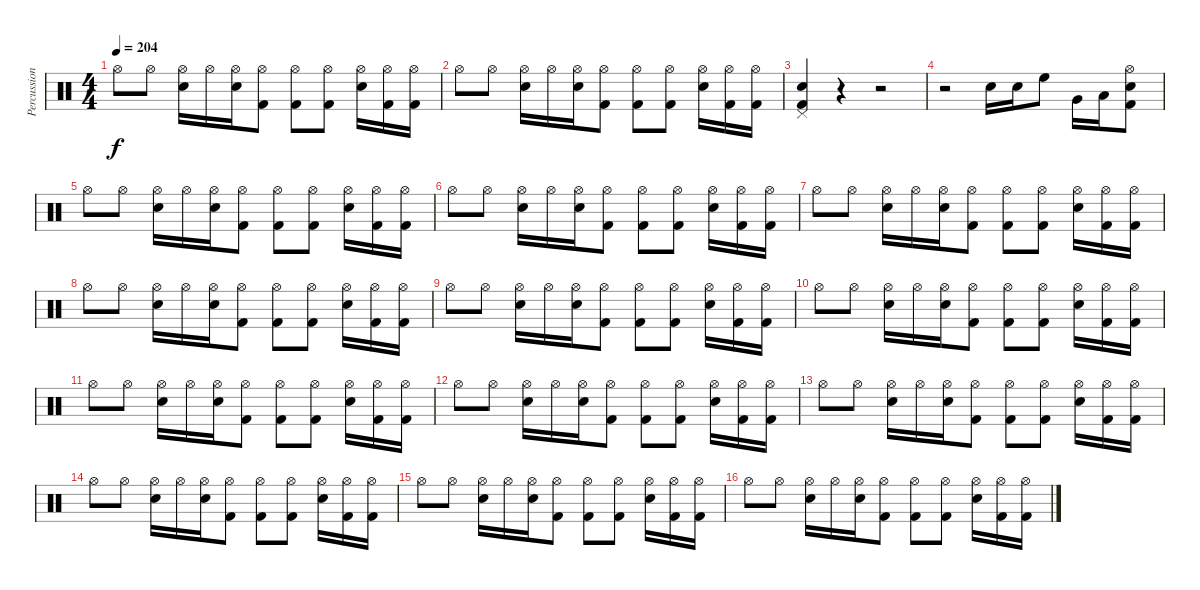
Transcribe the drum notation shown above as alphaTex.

\track ("Percussion" "Percussion") {instrument percussion}
\staff {score}
\articulation defaults
\ts (4 4)
\tempo 204
\clef neutral
\ks c "Hi-Hat (open)".8{dy f} "Hi-Hat (open)".8
("Hi-Hat (open)" "Snare (hit) 2").16 "Hi-Hat (open)".16 ("Hi-Hat (open)" "Snare (hit) 2").16 ("Hi-Hat (open)" "Kick (hit) 2").8 ("Hi-Hat (open)" "Kick (hit) 2").8 ("Hi-Hat (open)" "Kick (hit) 2").8 ("Hi-Hat (open)" "Snare (hit) 2").16 ("Hi-Hat (open)" "Kick (hit) 2").16 ("Hi-Hat (open)" "Kick (hit) 2").16 |
"Hi-Hat (open)".8 "Hi-Hat (open)".8 ("Hi-Hat (open)" "Snare (hit) 2").16 "Hi-Hat (open)".16 ("Hi-Hat (open)" "Snare (hit) 2").16 ("Hi-Hat (open)" "Kick (hit) 2").8 ("Hi-Hat (open)" "Kick (hit) 2").8 ("Hi-Hat (open)" "Kick (hit) 2").8 ("Hi-Hat (open)" "Snare (hit) 2").16 ("Hi-Hat (open)" "Kick (hit) 2").16 ("Hi-Hat (open)" "Kick (hit) 2").16 |
("Pedal Hi-Hat (hit)" "Snare (hit) 2" "Kick (hit) 2").4 r.4 r.2 |
r.2 "Snare (hit) 2".16 "Snare (hit) 2".16 "High Floor Tom (hit)".8 "Very Low Tom (hit)".16 "Low Tom (hit)".16 ("Hi-Hat (open)" "Snare (hit) 2" "Kick (hit) 2").8 |
"Hi-Hat (open)".8 "Hi-Hat (open)".8 ("Hi-Hat (open)" "Snare (hit) 2").16 "Hi-Hat (open)".16 ("Hi-Hat (open)" "Snare (hit) 2").16 ("Hi-Hat (open)" "Kick (hit) 2").8 ("Hi-Hat (open)" "Kick (hit) 2").8 ("Hi-Hat (open)" "Kick (hit) 2").8 ("Hi-Hat (open)" "Snare (hit) 2").16 ("Hi-Hat (open)" "Kick (hit) 2").16 ("Hi-Hat (open)" "Kick (hit) 2").16 |
"Hi-Hat (open)".8 "Hi-Hat (open)".8 ("Hi-Hat (open)" "Snare (hit) 2").16 "Hi-Hat (open)".16 ("Hi-Hat (open)" "Snare (hit) 2").16 ("Hi-Hat (open)" "Kick (hit) 2").8 ("Hi-Hat (open)" "Kick (hit) 2").8 ("Hi-Hat (open)" "Kick (hit) 2").8 ("Hi-Hat (open)" "Snare (hit) 2").16 ("Hi-Hat (open)" "Kick (hit) 2").16 ("Hi-Hat (open)" "Kick (hit) 2").16 |
"Hi-Hat (open)".8 "Hi-Hat (open)".8 ("Hi-Hat (open)" "Snare (hit) 2").16 "Hi-Hat (open)".16 ("Hi-Hat (open)" "Snare (hit) 2").16 ("Hi-Hat (open)" "Kick (hit) 2").8 ("Hi-Hat (open)" "Kick (hit) 2").8 ("Hi-Hat (open)" "Kick (hit) 2").8 ("Hi-Hat (open)" "Snare (hit) 2").16 ("Hi-Hat (open)" "Kick (hit) 2").16 ("Hi-Hat (open)" "Kick (hit) 2").16 |
"Hi-Hat (open)".8 "Hi-Hat (open)".8 ("Hi-Hat (open)" "Snare (hit) 2").16 "Hi-Hat (open)".16 ("Hi-Hat (open)" "Snare (hit) 2").16 ("Hi-Hat (open)" "Kick (hit) 2").8 ("Hi-Hat (open)" "Kick (hit) 2").8 ("Hi-Hat (open)" "Kick (hit) 2").8 ("Hi-Hat (open)" "Snare (hit) 2").16 ("Hi-Hat (open)" "Kick (hit) 2").16 ("Hi-Hat (open)" "Kick (hit) 2").16 |
"Hi-Hat (open)".8 "Hi-Hat (open)".8 ("Hi-Hat (open)" "Snare (hit) 2").16 "Hi-Hat (open)".16 ("Hi-Hat (open)" "Snare (hit) 2").16 ("Hi-Hat (open)" "Kick (hit) 2").8 ("Hi-Hat (open)" "Kick (hit) 2").8 ("Hi-Hat (open)" "Kick (hit) 2").8 ("Hi-Hat (open)" "Snare (hit) 2").16 ("Hi-Hat (open)" "Kick (hit) 2").16 ("Hi-Hat (open)" "Kick (hit) 2").16 |
"Hi-Hat (open)".8 "Hi-Hat (open)".8 ("Hi-Hat (open)" "Snare (hit) 2").16 "Hi-Hat (open)".16 ("Hi-Hat (open)" "Snare (hit) 2").16 ("Hi-Hat (open)" "Kick (hit) 2").8 ("Hi-Hat (open)" "Kick (hit) 2").8 ("Hi-Hat (open)" "Kick (hit) 2").8 ("Hi-Hat (open)" "Snare (hit) 2").16 ("Hi-Hat (open)" "Kick (hit) 2").16 ("Hi-Hat (open)" "Kick (hit) 2").16 |
"Hi-Hat (open)".8 "Hi-Hat (open)".8 ("Hi-Hat (open)" "Snare (hit) 2").16 "Hi-Hat (open)".16 ("Hi-Hat (open)" "Snare (hit) 2").16 ("Hi-Hat (open)" "Kick (hit) 2").8 ("Hi-Hat (open)" "Kick (hit) 2").8 ("Hi-Hat (open)" "Kick (hit) 2").8 ("Hi-Hat (open)" "Snare (hit) 2").16 ("Hi-Hat (open)" "Kick (hit) 2").16 ("Hi-Hat (open)" "Kick (hit) 2").16 |
"Hi-Hat (open)".8 "Hi-Hat (open)".8 ("Hi-Hat (open)" "Snare (hit) 2").16 "Hi-Hat (open)".16 ("Hi-Hat (open)" "Snare (hit) 2").16 ("Hi-Hat (open)" "Kick (hit) 2").8 ("Hi-Hat (open)" "Kick (hit) 2").8 ("Hi-Hat (open)" "Kick (hit) 2").8 ("Hi-Hat (open)" "Snare (hit) 2").16 ("Hi-Hat (open)" "Kick (hit) 2").16 ("Hi-Hat (open)" "Kick (hit) 2").16 |
"Hi-Hat (open)".8 "Hi-Hat (open)".8 ("Hi-Hat (open)" "Snare (hit) 2").16 "Hi-Hat (open)".16 ("Hi-Hat (open)" "Snare (hit) 2").16 ("Hi-Hat (open)" "Kick (hit) 2").8 ("Hi-Hat (open)" "Kick (hit) 2").8 ("Hi-Hat (open)" "Kick (hit) 2").8 ("Hi-Hat (open)" "Snare (hit) 2").16 ("Hi-Hat (open)" "Kick (hit) 2").16 ("Hi-Hat (open)" "Kick (hit) 2").16 |
"Hi-Hat (open)".8 "Hi-Hat (open)".8 ("Hi-Hat (open)" "Snare (hit) 2").16 "Hi-Hat (open)".16 ("Hi-Hat (open)" "Snare (hit) 2").16 ("Hi-Hat (open)" "Kick (hit) 2").8 ("Hi-Hat (open)" "Kick (hit) 2").8 ("Hi-Hat (open)" "Kick (hit) 2").8 ("Hi-Hat (open)" "Snare (hit) 2").16 ("Hi-Hat (open)" "Kick (hit) 2").16 ("Hi-Hat (open)" "Kick (hit) 2").16 |
"Hi-Hat (open)".8 "Hi-Hat (open)".8 ("Hi-Hat (open)" "Snare (hit) 2").16 "Hi-Hat (open)".16 ("Hi-Hat (open)" "Snare (hit) 2").16 ("Hi-Hat (open)" "Kick (hit) 2").8 ("Hi-Hat (open)" "Kick (hit) 2").8 ("Hi-Hat (open)" "Kick (hit) 2").8 ("Hi-Hat (open)" "Snare (hit) 2").16 ("Hi-Hat (open)" "Kick (hit) 2").16 ("Hi-Hat (open)" "Kick (hit) 2").16 |
"Hi-Hat (open)".8 "Hi-Hat (open)".8 ("Hi-Hat (open)" "Snare (hit) 2").16 "Hi-Hat (open)".16 ("Hi-Hat (open)" "Snare (hit) 2").16 ("Hi-Hat (open)" "Kick (hit) 2").8 ("Hi-Hat (open)" "Kick (hit) 2").8 ("Hi-Hat (open)" "Kick (hit) 2").8 ("Hi-Hat (open)" "Snare (hit) 2").16 ("Hi-Hat (open)" "Kick (hit) 2").16 ("Hi-Hat (open)" "Kick (hit) 2").16
